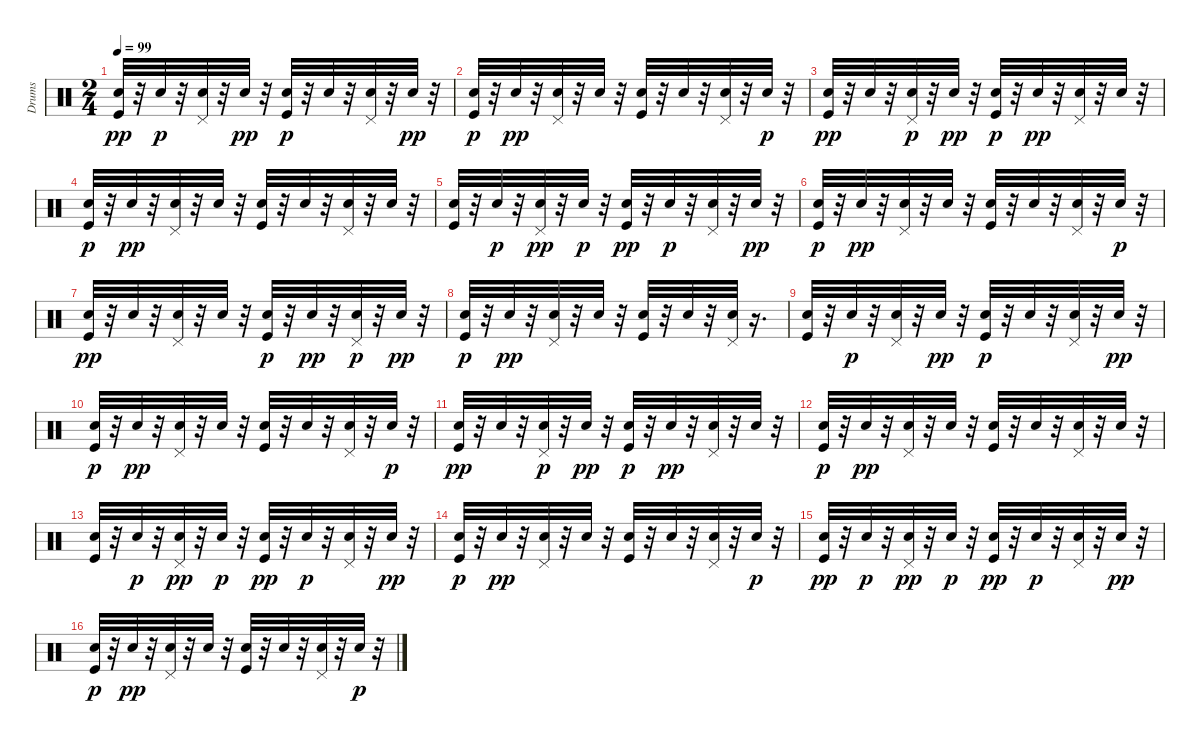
\track ("Drums" "Drums") {instrument percussion}
\staff {score}
\articulation defaults
\ts (2 4)
\tempo 99
\clef neutral
\ks c
("Kick (hit)" "Hand Clap (hit)").32{dy pp} r.32 "Snare (hit) 2".32{dy p} r.32 ("Pedal Hi-Hat (hit)" "Snare (hit) 2").32 r.32 "Snare (hit) 2".32{dy pp} r.32 ("Hand Clap (hit)" "Kick (hit)").32{dy p} r.32 "Snare (hit) 2".32 r.32 ("Pedal Hi-Hat (hit)" "Snare (hit) 2").32 r.32 "Snare (hit) 2".32{dy pp} r.32 |
("Hand Clap (hit)" "Kick (hit)").32{dy p} r.32 "Snare (hit) 2".32{dy pp} r.32 ("Pedal Hi-Hat (hit)" "Snare (hit) 2").32 r.32 "Hand Clap (hit)".32 r.32 ("Kick (hit)" "Hand Clap (hit)").32 r.32 "Snare (hit) 2".32 r.32 ("Pedal Hi-Hat (hit)" "Hand Clap (hit)").32 r.32 "Snare (hit) 2".32{dy p} r.32 |
("Kick (hit)" "Hand Clap (hit)").32{dy pp} r.32 "Snare (hit) 2".32 r.32 ("Pedal Hi-Hat (hit)" "Snare (hit) 2").32{dy p} r.32 "Hand Clap (hit)".32{dy pp} r.32 ("Hand Clap (hit)" "Kick (hit)").32{dy p} r.32 "Snare (hit) 2".32{dy pp} r.32 ("Pedal Hi-Hat (hit)" "Hand Clap (hit)").32 r.32 "Snare (hit) 2".32 r.32 |
("Hand Clap (hit)" "Kick (hit)").32{dy p} r.32 "Snare (hit) 2".32{dy pp} r.32 ("Pedal Hi-Hat (hit)" "Snare (hit) 2").32 r.32 "Snare (hit) 2".32 r.32 ("Kick (hit)" "Hand Clap (hit)").32 r.32 "Snare (hit) 2".32 r.32 ("Hand Clap (hit)" "Pedal Hi-Hat (hit)").32 r.32 "Snare (hit) 2".32 r.32 |
("Kick (hit)" "Hand Clap (hit)").32 r.32 "Snare (hit) 2".32{dy p} r.32 ("Pedal Hi-Hat (hit)" "Snare (hit) 2").32{dy pp} r.32 "Hand Clap (hit)".32{dy p} r.32 ("Kick (hit)" "Snare (hit) 2").32{dy pp} r.32 "Snare (hit) 2".32{dy p} r.32 ("Pedal Hi-Hat (hit)" "Snare (hit) 2").32 r.32 "Snare (hit) 2".32{dy pp} r.32 |
("Hand Clap (hit)" "Kick (hit)").32{dy p} r.32 "Snare (hit) 2".32{dy pp} r.32 ("Pedal Hi-Hat (hit)" "Snare (hit) 2").32 r.32 "Hand Clap (hit)".32 r.32 ("Kick (hit)" "Hand Clap (hit)").32 r.32 "Snare (hit) 2".32 r.32 ("Pedal Hi-Hat (hit)" "Hand Clap (hit)").32 r.32 "Snare (hit) 2".32{dy p} r.32 |
("Kick (hit)" "Hand Clap (hit)").32{dy pp} r.32 "Snare (hit) 2".32 r.32 ("Pedal Hi-Hat (hit)" "Snare (hit) 2").32 r.32 "Hand Clap (hit)".32 r.32 ("Kick (hit)" "Snare (hit) 2").32{dy p} r.32 "Snare (hit) 2".32{dy pp} r.32 ("Pedal Hi-Hat (hit)" "Snare (hit) 2").32{dy p} r.32 "Snare (hit) 2".32{dy pp} r.32 |
("Hand Clap (hit)" "Kick (hit)").32{dy p} r.32 "Snare (hit) 2".32{dy pp} r.32 ("Pedal Hi-Hat (hit)" "Snare (hit) 2").32 r.32 "Hand Clap (hit)".32 r.32 ("Kick (hit)" "Hand Clap (hit)").32 r.32 "Snare (hit) 2".32 r.32 ("Hand Clap (hit)" "Pedal Hi-Hat (hit)").32 r.16{d} |
("Kick (hit)" "Hand Clap (hit)").32 r.32 "Snare (hit) 2".32{dy p} r.32 ("Pedal Hi-Hat (hit)" "Snare (hit) 2").32 r.32 "Snare (hit) 2".32{dy pp} r.32 ("Hand Clap (hit)" "Kick (hit)").32{dy p} r.32 "Snare (hit) 2".32 r.32 ("Pedal Hi-Hat (hit)" "Snare (hit) 2").32 r.32 "Snare (hit) 2".32{dy pp} r.32 |
("Hand Clap (hit)" "Kick (hit)").32{dy p} r.32 "Snare (hit) 2".32{dy pp} r.32 ("Pedal Hi-Hat (hit)" "Snare (hit) 2").32 r.32 "Hand Clap (hit)".32 r.32 ("Kick (hit)" "Hand Clap (hit)").32 r.32 "Snare (hit) 2".32 r.32 ("Pedal Hi-Hat (hit)" "Hand Clap (hit)").32 r.32 "Snare (hit) 2".32{dy p} r.32 |
("Kick (hit)" "Hand Clap (hit)").32{dy pp} r.32 "Snare (hit) 2".32 r.32 ("Pedal Hi-Hat (hit)" "Snare (hit) 2").32{dy p} r.32 "Hand Clap (hit)".32{dy pp} r.32 ("Hand Clap (hit)" "Kick (hit)").32{dy p} r.32 "Snare (hit) 2".32{dy pp} r.32 ("Pedal Hi-Hat (hit)" "Hand Clap (hit)").32 r.32 "Snare (hit) 2".32 r.32 |
("Hand Clap (hit)" "Kick (hit)").32{dy p} r.32 "Snare (hit) 2".32{dy pp} r.32 ("Pedal Hi-Hat (hit)" "Snare (hit) 2").32 r.32 "Snare (hit) 2".32 r.32 ("Kick (hit)" "Hand Clap (hit)").32 r.32 "Snare (hit) 2".32 r.32 ("Hand Clap (hit)" "Pedal Hi-Hat (hit)").32 r.32 "Snare (hit) 2".32 r.32 |
("Kick (hit)" "Hand Clap (hit)").32 r.32 "Snare (hit) 2".32{dy p} r.32 ("Pedal Hi-Hat (hit)" "Snare (hit) 2").32{dy pp} r.32 "Hand Clap (hit)".32{dy p} r.32 ("Kick (hit)" "Snare (hit) 2").32{dy pp} r.32 "Snare (hit) 2".32{dy p} r.32 ("Pedal Hi-Hat (hit)" "Snare (hit) 2").32 r.32 "Snare (hit) 2".32{dy pp} r.32 |
("Hand Clap (hit)" "Kick (hit)").32{dy p} r.32 "Snare (hit) 2".32{dy pp} r.32 ("Pedal Hi-Hat (hit)" "Snare (hit) 2").32 r.32 "Hand Clap (hit)".32 r.32 ("Kick (hit)" "Hand Clap (hit)").32 r.32 "Snare (hit) 2".32 r.32 ("Pedal Hi-Hat (hit)" "Hand Clap (hit)").32 r.32 "Snare (hit) 2".32{dy p} r.32 |
("Kick (hit)" "Hand Clap (hit)").32{dy pp} r.32 "Snare (hit) 2".32{dy p} r.32 ("Pedal Hi-Hat (hit)" "Snare (hit) 2").32{dy pp} r.32 "Hand Clap (hit)".32{dy p} r.32 ("Kick (hit)" "Snare (hit) 2").32{dy pp} r.32 "Snare (hit) 2".32{dy p} r.32 ("Pedal Hi-Hat (hit)" "Snare (hit) 2").32 r.32 "Snare (hit) 2".32{dy pp} r.32 |
("Hand Clap (hit)" "Kick (hit)").32{dy p} r.32 "Snare (hit) 2".32{dy pp} r.32 ("Pedal Hi-Hat (hit)" "Snare (hit) 2").32 r.32 "Hand Clap (hit)".32 r.32 ("Kick (hit)" "Hand Clap (hit)").32 r.32 "Snare (hit) 2".32 r.32 ("Pedal Hi-Hat (hit)" "Hand Clap (hit)").32 r.32 "Snare (hit) 2".32{dy p} r.32
